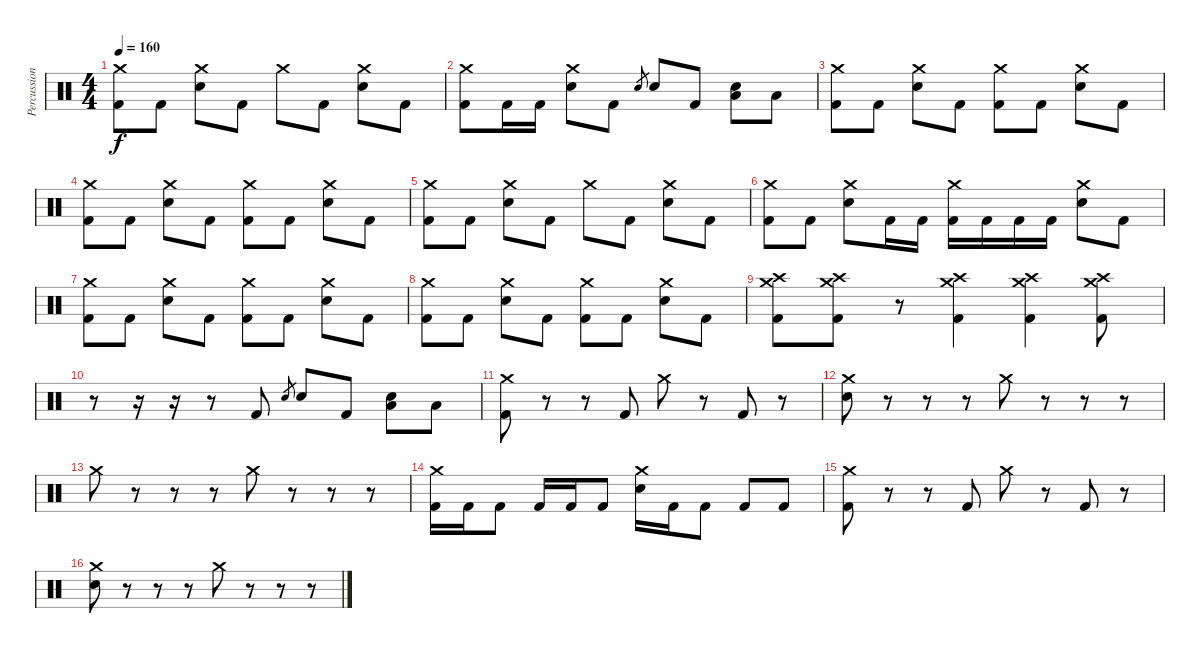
\track ("Percussions" "Percussion") {instrument percussion}
\staff {score}
\articulation defaults
\ts (4 4)
\tempo 160
\clef neutral
\ks c
("Kick (hit) 2" "Crash medium (hit)").8{dy f} "Kick (hit) 2".8 ("Electric Snare (hit)" "Crash medium (hit)").8 "Kick (hit) 2".8 "Crash medium (hit)".8 "Kick (hit) 2".8 ("Electric Snare (hit)" "Crash medium (hit)").8 "Kick (hit) 2".8 |
("Kick (hit) 2" "Crash medium (hit)").8 "Kick (hit) 2".16 "Kick (hit) 2".16 ("Electric Snare (hit)" "Crash medium (hit)").8 "Kick (hit) 2".8 "Electric Snare (hit)".8{gr} "Electric Snare (hit)".8 "Kick (hit) 2".8 ("Electric Snare (hit)" "Low Tom (hit)").8 "Low Tom (hit)".8 |
("Kick (hit) 2" "Crash medium (hit)").8 "Kick (hit) 2".8 ("Electric Snare (hit)" "Crash medium (hit)").8 "Kick (hit) 2".8 ("Kick (hit) 2" "Crash medium (hit)").8 "Kick (hit) 2".8 ("Electric Snare (hit)" "Crash medium (hit)").8 "Kick (hit) 2".8 |
("Kick (hit) 2" "Crash medium (hit)").8 "Kick (hit) 2".8 ("Electric Snare (hit)" "Crash medium (hit)").8 "Kick (hit) 2".8 ("Kick (hit) 2" "Crash medium (hit)").8 "Kick (hit) 2".8 ("Electric Snare (hit)" "Crash medium (hit)").8 "Kick (hit) 2".8 |
("Kick (hit) 2" "Crash medium (hit)").8 "Kick (hit) 2".8 ("Electric Snare (hit)" "Crash medium (hit)").8 "Kick (hit) 2".8 "Crash medium (hit)".8 "Kick (hit) 2".8 ("Electric Snare (hit)" "Crash medium (hit)").8 "Kick (hit) 2".8 |
("Kick (hit) 2" "Crash medium (hit)").8 "Kick (hit) 2".8 ("Electric Snare (hit)" "Crash medium (hit)").8 "Kick (hit) 2".16 "Kick (hit) 2".16 ("Kick (hit) 2" "Crash medium (hit)").16 "Kick (hit) 2".16 "Kick (hit) 2".16 "Kick (hit) 2".16 ("Electric Snare (hit)" "Crash medium (hit)").8 "Kick (hit) 2".8 |
("Kick (hit) 2" "Crash medium (hit)").8 "Kick (hit) 2".8 ("Electric Snare (hit)" "Crash medium (hit)").8 "Kick (hit) 2".8 ("Kick (hit) 2" "Crash medium (hit)").8 "Kick (hit) 2".8 ("Electric Snare (hit)" "Crash medium (hit)").8 "Kick (hit) 2".8 |
("Kick (hit) 2" "Crash medium (hit)").8 "Kick (hit) 2".8 ("Electric Snare (hit)" "Crash medium (hit)").8 "Kick (hit) 2".8 ("Kick (hit) 2" "Crash medium (hit)").8 "Kick (hit) 2".8 ("Electric Snare (hit)" "Crash medium (hit)").8 "Kick (hit) 2".8 |
("Kick (hit) 2" "Crash high (hit)" "Crash medium (hit)").8 ("Kick (hit) 2" "Crash high (hit)" "Crash medium (hit)").8 r.8 ("Kick (hit) 2" "Crash high (hit)" "Crash medium (hit)").4 ("Kick (hit) 2" "Crash high (hit)" "Crash medium (hit)").4 ("Kick (hit) 2" "Crash high (hit)" "Crash medium (hit)").8 |
r.8 r.16 r.16 r.8 "Kick (hit) 2".8 "Electric Snare (hit)".8{gr} "Electric Snare (hit)".8 "Kick (hit) 2".8 ("Electric Snare (hit)" "Low Tom (hit)").8 "Low Tom (hit)".8 |
("Kick (hit) 2" "Crash medium (hit)").8 r.8 r.8 "Kick (hit) 2".8 "Crash medium (hit)".8 r.8 "Kick (hit) 2".8 r.8 |
("Electric Snare (hit)" "Crash medium (hit)").8 r.8 r.8 r.8 "Crash medium (hit)".8 r.8 r.8 r.8 |
"Crash medium (hit)".8 r.8 r.8 r.8 "Crash medium (hit)".8 r.8 r.8 r.8 |
("Kick (hit) 2" "Crash medium (hit)").16 "Kick (hit) 2".16 "Kick (hit) 2".8 "Kick (hit) 2".16 "Kick (hit) 2".16 "Kick (hit) 2".8 ("Electric Snare (hit)" "Crash medium (hit)").16 "Kick (hit) 2".16 "Kick (hit) 2".8 "Kick (hit) 2".8 "Kick (hit) 2".8 |
("Kick (hit) 2" "Crash medium (hit)").8 r.8 r.8 "Kick (hit) 2".8 "Crash medium (hit)".8 r.8 "Kick (hit) 2".8 r.8 |
("Electric Snare (hit)" "Crash medium (hit)").8 r.8 r.8 r.8 "Crash medium (hit)".8 r.8 r.8 r.8
